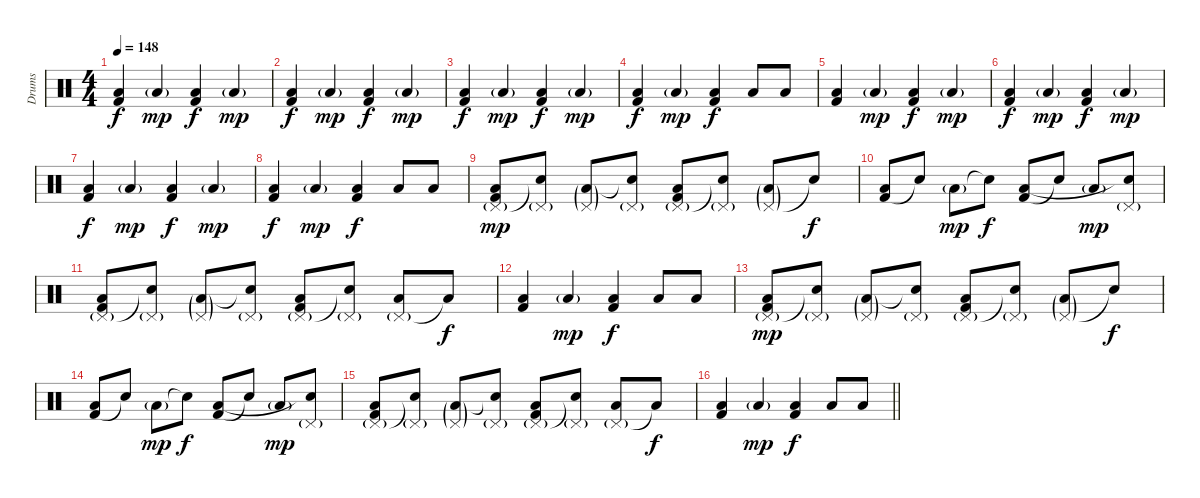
\track ("Drums" "Drums") {instrument percussion}
\staff {score}
\articulation defaults
\ts (4 4)
\tempo 148
\clef neutral
\ks c
("Kick (hit) 2" "Low Floor Tom (hit)").4{dy f} "Low Floor Tom (hit)"{g}.4{dy mp} ("Kick (hit) 2" "Low Floor Tom (hit)").4{dy f} "Low Floor Tom (hit)"{g}.4{dy mp} |
("Kick (hit) 2" "Low Floor Tom (hit)").4{dy f} "Low Floor Tom (hit)"{g}.4{dy mp} ("Kick (hit) 2" "Low Floor Tom (hit)").4{dy f} "Low Floor Tom (hit)"{g}.4{dy mp} |
("Kick (hit) 2" "Low Floor Tom (hit)").4{dy f} "Low Floor Tom (hit)"{g}.4{dy mp} ("Kick (hit) 2" "Low Floor Tom (hit)").4{dy f} "Low Floor Tom (hit)"{g}.4{dy mp} |
("Kick (hit) 2" "Low Floor Tom (hit)").4{dy f} "Low Floor Tom (hit)"{g}.4{dy mp} ("Kick (hit) 2" "Low Floor Tom (hit)").4{dy f} "Low Floor Tom (hit)".8 "Low Floor Tom (hit)".8 |
("Kick (hit) 2" "Low Floor Tom (hit)").4 "Low Floor Tom (hit)"{g}.4{dy mp} ("Kick (hit) 2" "Low Floor Tom (hit)").4{dy f} "Low Floor Tom (hit)"{g}.4{dy mp} |
("Kick (hit) 2" "Low Floor Tom (hit)").4{dy f} "Low Floor Tom (hit)"{g}.4{dy mp} ("Kick (hit) 2" "Low Floor Tom (hit)").4{dy f} "Low Floor Tom (hit)"{g}.4{dy mp} |
("Kick (hit) 2" "Low Floor Tom (hit)").4{dy f} "Low Floor Tom (hit)"{g}.4{dy mp} ("Kick (hit) 2" "Low Floor Tom (hit)").4{dy f} "Low Floor Tom (hit)"{g}.4{dy mp} |
("Kick (hit) 2" "Low Floor Tom (hit)").4{dy f} "Low Floor Tom (hit)"{g}.4{dy mp} ("Kick (hit) 2" "Low Floor Tom (hit)").4{dy f} "Low Floor Tom (hit)".8 "Low Floor Tom (hit)".8 |
("Kick (hit) 2" "Pedal Hi-Hat (hit)"{g} "Low Floor Tom (hit)").8{dy mp} ("Pedal Hi-Hat (hit)"{g} "Snare (hit)"{t}).8 ("Pedal Hi-Hat (hit)"{g} "Low Floor Tom (hit)"{g}).8 ("Pedal Hi-Hat (hit)"{g} "Snare (hit)"{t}).8 ("Kick (hit) 2" "Pedal Hi-Hat (hit)"{g} "Low Floor Tom (hit)").8 ("Pedal Hi-Hat (hit)"{g} "Snare (hit)"{t}).8 ("Pedal Hi-Hat (hit)"{g} "Low Floor Tom (hit)"{g}).8 "Snare (hit)"{t}.8{dy f} |
("Kick (hit) 2" "Low Floor Tom (hit)").8 "Snare (hit)"{t}.8 "Low Floor Tom (hit)"{g}.8{dy mp} "Snare (hit)"{t}.8{dy f} ("Kick (hit) 2" "Low Floor Tom (hit)").8 "Snare (hit)"{t}.8 "Low Floor Tom (hit)"{g}.8{dy mp} ("Pedal Hi-Hat (hit)"{g} "Snare (hit)"{t}).8 |
("Kick (hit) 2" "Pedal Hi-Hat (hit)"{g} "Low Floor Tom (hit)").8 ("Pedal Hi-Hat (hit)"{g} "Snare (hit)"{t}).8 ("Pedal Hi-Hat (hit)"{g} "Low Floor Tom (hit)"{g}).8 ("Pedal Hi-Hat (hit)"{g} "Snare (hit)"{t}).8 ("Kick (hit) 2" "Pedal Hi-Hat (hit)"{g} "Low Floor Tom (hit)").8 ("Pedal Hi-Hat (hit)"{g} "Snare (hit)"{t}).8 ("Pedal Hi-Hat (hit)"{g} "Low Floor Tom (hit)").8 "Low Floor Tom (hit)"{t}.8{dy f} |
("Kick (hit) 2" "Low Floor Tom (hit)").4 "Low Floor Tom (hit)"{g}.4{dy mp} ("Kick (hit) 2" "Low Floor Tom (hit)").4{dy f} "Low Floor Tom (hit)".8 "Low Floor Tom (hit)".8 |
("Kick (hit) 2" "Pedal Hi-Hat (hit)"{g} "Low Floor Tom (hit)").8{dy mp} ("Pedal Hi-Hat (hit)"{g} "Snare (hit)"{t}).8 ("Pedal Hi-Hat (hit)"{g} "Low Floor Tom (hit)"{g}).8 ("Pedal Hi-Hat (hit)"{g} "Snare (hit)"{t}).8 ("Kick (hit) 2" "Pedal Hi-Hat (hit)"{g} "Low Floor Tom (hit)").8 ("Pedal Hi-Hat (hit)"{g} "Snare (hit)"{t}).8 ("Pedal Hi-Hat (hit)"{g} "Low Floor Tom (hit)"{g}).8 "Snare (hit)"{t}.8{dy f} |
("Kick (hit) 2" "Low Floor Tom (hit)").8 "Snare (hit)"{t}.8 "Low Floor Tom (hit)"{g}.8{dy mp} "Snare (hit)"{t}.8{dy f} ("Kick (hit) 2" "Low Floor Tom (hit)").8 "Snare (hit)"{t}.8 "Low Floor Tom (hit)"{g}.8{dy mp} ("Pedal Hi-Hat (hit)"{g} "Snare (hit)"{t}).8 |
("Kick (hit) 2" "Pedal Hi-Hat (hit)"{g} "Low Floor Tom (hit)").8 ("Pedal Hi-Hat (hit)"{g} "Snare (hit)"{t}).8 ("Pedal Hi-Hat (hit)"{g} "Low Floor Tom (hit)"{g}).8 ("Pedal Hi-Hat (hit)"{g} "Snare (hit)"{t}).8 ("Kick (hit) 2" "Pedal Hi-Hat (hit)"{g} "Low Floor Tom (hit)").8 ("Pedal Hi-Hat (hit)"{g} "Snare (hit)"{t}).8 ("Pedal Hi-Hat (hit)"{g} "Low Floor Tom (hit)").8 "Low Floor Tom (hit)"{t}.8{dy f} |
\barLineRight lightlight
("Kick (hit) 2" "Low Floor Tom (hit)").4 "Low Floor Tom (hit)"{g}.4{dy mp} ("Kick (hit) 2" "Low Floor Tom (hit)").4{dy f} "Low Floor Tom (hit)".8 "Low Floor Tom (hit)".8
